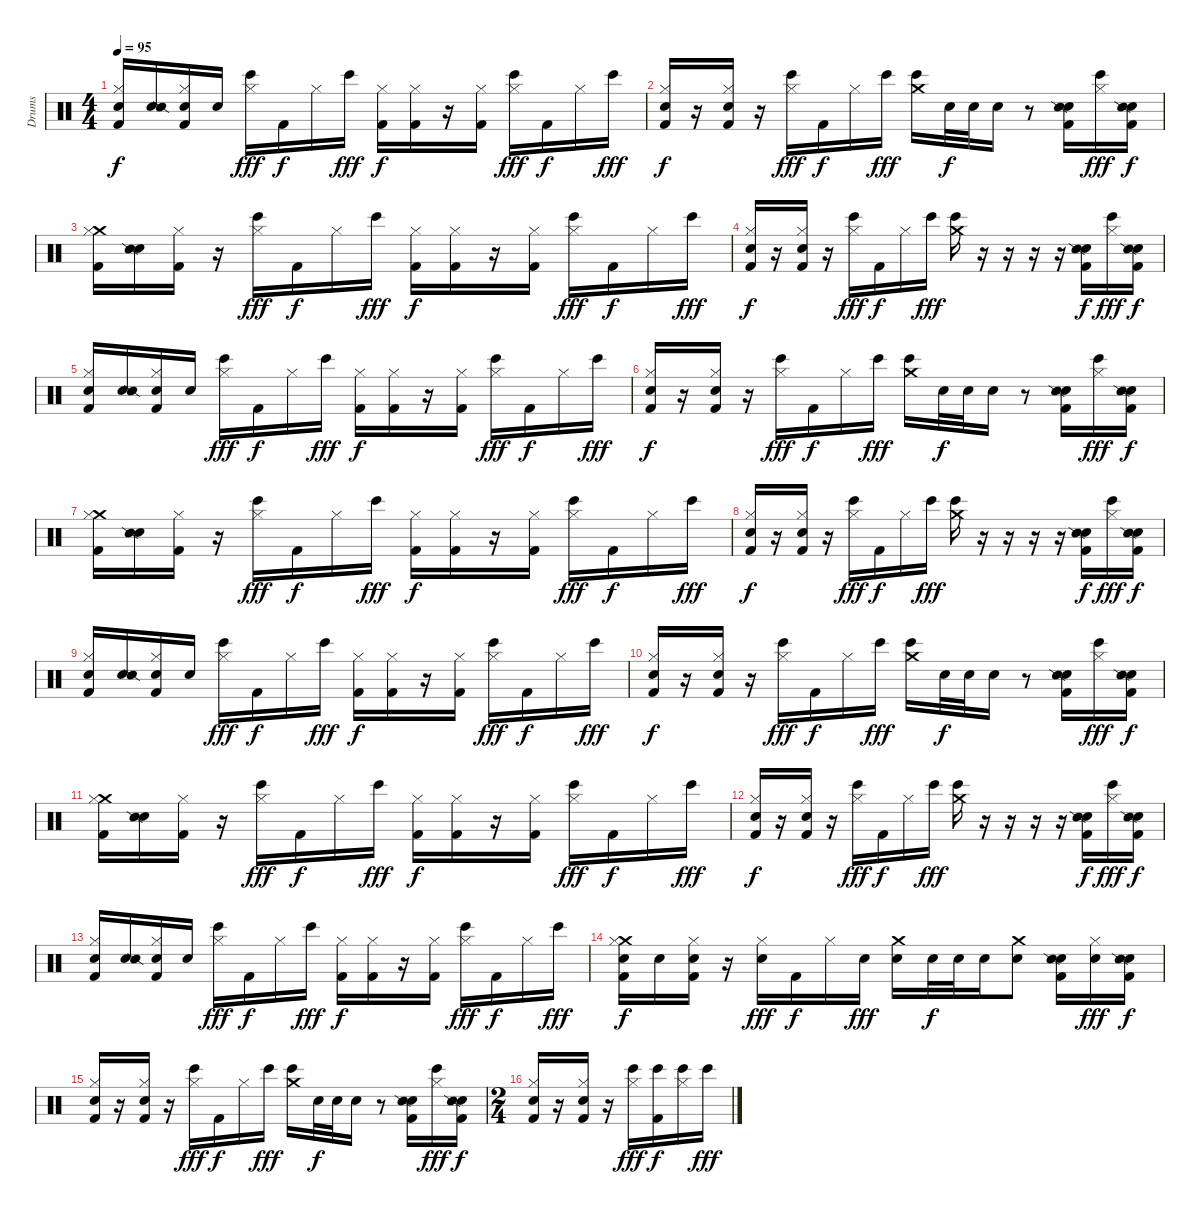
\track ("Drums" "Drums") {instrument percussion}
\staff {score}
\articulation defaults
\ts (4 4)
\tempo 95
\clef neutral
\ks c
("Metronome (bell)" "Hi-Hat (closed)" "Kick (hit) 2").16{dy f} ("Metronome (bell)" "Snare (side stick) 2").16 ("Metronome (bell)" "Hi-Hat (closed)" "Kick (hit) 2").16 "Metronome (bell)".16 ("Hi-Hat (closed)" "Bongo High (hit)").16{dy fff} "Kick (hit) 2".16{dy f} "Hi-Hat (closed)".16 "Bongo High (hit)".16{dy fff} ("Hi-Hat (closed)" "Kick (hit) 2").16{dy f} ("Hi-Hat (closed)" "Kick (hit) 2").16 r.16 ("Hi-Hat (closed)" "Kick (hit) 2").16 ("Hi-Hat (closed)" "Bongo High (hit)").16{dy fff} "Kick (hit) 2".16{dy f} "Hi-Hat (closed)".16 "Bongo High (hit)".16{dy fff} |
("Metronome (bell)" "Hi-Hat (closed)" "Kick (hit) 2").16{dy f} r.16 ("Metronome (bell)" "Hi-Hat (closed)" "Kick (hit) 2").16 r.16 ("Hi-Hat (closed)" "Bongo High (hit)").16{dy fff} "Kick (hit) 2".16{dy f} "Hi-Hat (closed)".16 "Bongo High (hit)".16{dy fff} ("Crash medium (hit)" "Bongo High (hit)").16 "Metronome (bell)".32{dy f} "Metronome (bell)".32 "Metronome (bell)".16 r.8 ("Metronome (bell)" "Snare (side stick) 2" "Kick (hit) 2").16 ("Hi-Hat (closed)" "Bongo High (hit)").16{dy fff} ("Metronome (bell)" "Snare (side stick) 2" "Kick (hit) 2").16{dy f} |
("Crash medium (hit)" "Hi-Hat (closed)" "Kick (hit) 2").16 ("Metronome (bell)" "Snare (side stick) 2").16 ("Hi-Hat (closed)" "Kick (hit) 2").16 r.16 ("Hi-Hat (closed)" "Bongo High (hit)").16{dy fff} "Kick (hit) 2".16{dy f} "Hi-Hat (closed)".16 "Bongo High (hit)".16{dy fff} ("Hi-Hat (closed)" "Kick (hit) 2").16{dy f} ("Hi-Hat (closed)" "Kick (hit) 2").16 r.16 ("Hi-Hat (closed)" "Kick (hit) 2").16 ("Hi-Hat (closed)" "Bongo High (hit)").16{dy fff} "Kick (hit) 2".16{dy f} "Hi-Hat (closed)".16 "Bongo High (hit)".16{dy fff} |
("Metronome (bell)" "Hi-Hat (closed)" "Kick (hit) 2").16{dy f} r.16 ("Metronome (bell)" "Hi-Hat (closed)" "Kick (hit) 2").16 r.16 ("Hi-Hat (closed)" "Bongo High (hit)").16{dy fff} "Kick (hit) 2".16{dy f} "Hi-Hat (closed)".16 "Bongo High (hit)".16{dy fff} ("Crash medium (hit)" "Bongo High (hit)").16 r.16 r.16 r.16 r.16 ("Metronome (bell)" "Snare (side stick) 2" "Kick (hit) 2").16{dy f} ("Hi-Hat (closed)" "Bongo High (hit)").16{dy fff} ("Metronome (bell)" "Snare (side stick) 2" "Kick (hit) 2").16{dy f} |
("Metronome (bell)" "Hi-Hat (closed)" "Kick (hit) 2").16 ("Metronome (bell)" "Snare (side stick) 2").16 ("Metronome (bell)" "Hi-Hat (closed)" "Kick (hit) 2").16 "Metronome (bell)".16 ("Hi-Hat (closed)" "Bongo High (hit)").16{dy fff} "Kick (hit) 2".16{dy f} "Hi-Hat (closed)".16 "Bongo High (hit)".16{dy fff} ("Hi-Hat (closed)" "Kick (hit) 2").16{dy f} ("Hi-Hat (closed)" "Kick (hit) 2").16 r.16 ("Hi-Hat (closed)" "Kick (hit) 2").16 ("Hi-Hat (closed)" "Bongo High (hit)").16{dy fff} "Kick (hit) 2".16{dy f} "Hi-Hat (closed)".16 "Bongo High (hit)".16{dy fff} |
("Metronome (bell)" "Hi-Hat (closed)" "Kick (hit) 2").16{dy f} r.16 ("Metronome (bell)" "Hi-Hat (closed)" "Kick (hit) 2").16 r.16 ("Hi-Hat (closed)" "Bongo High (hit)").16{dy fff} "Kick (hit) 2".16{dy f} "Hi-Hat (closed)".16 "Bongo High (hit)".16{dy fff} ("Crash medium (hit)" "Bongo High (hit)").16 "Metronome (bell)".32{dy f} "Metronome (bell)".32 "Metronome (bell)".16 r.8 ("Metronome (bell)" "Snare (side stick) 2" "Kick (hit) 2").16 ("Hi-Hat (closed)" "Bongo High (hit)").16{dy fff} ("Metronome (bell)" "Snare (side stick) 2" "Kick (hit) 2").16{dy f} |
("Crash medium (hit)" "Hi-Hat (closed)" "Kick (hit) 2").16 ("Metronome (bell)" "Snare (side stick) 2").16 ("Hi-Hat (closed)" "Kick (hit) 2").16 r.16 ("Hi-Hat (closed)" "Bongo High (hit)").16{dy fff} "Kick (hit) 2".16{dy f} "Hi-Hat (closed)".16 "Bongo High (hit)".16{dy fff} ("Hi-Hat (closed)" "Kick (hit) 2").16{dy f} ("Hi-Hat (closed)" "Kick (hit) 2").16 r.16 ("Hi-Hat (closed)" "Kick (hit) 2").16 ("Hi-Hat (closed)" "Bongo High (hit)").16{dy fff} "Kick (hit) 2".16{dy f} "Hi-Hat (closed)".16 "Bongo High (hit)".16{dy fff} |
("Metronome (bell)" "Hi-Hat (closed)" "Kick (hit) 2").16{dy f} r.16 ("Metronome (bell)" "Hi-Hat (closed)" "Kick (hit) 2").16 r.16 ("Hi-Hat (closed)" "Bongo High (hit)").16{dy fff} "Kick (hit) 2".16{dy f} "Hi-Hat (closed)".16 "Bongo High (hit)".16{dy fff} ("Crash medium (hit)" "Bongo High (hit)").16 r.16 r.16 r.16 r.16 ("Metronome (bell)" "Snare (side stick) 2" "Kick (hit) 2").16{dy f} ("Hi-Hat (closed)" "Bongo High (hit)").16{dy fff} ("Metronome (bell)" "Snare (side stick) 2" "Kick (hit) 2").16{dy f} |
("Metronome (bell)" "Hi-Hat (closed)" "Kick (hit) 2").16 ("Metronome (bell)" "Snare (side stick) 2").16 ("Metronome (bell)" "Hi-Hat (closed)" "Kick (hit) 2").16 "Metronome (bell)".16 ("Hi-Hat (closed)" "Bongo High (hit)").16{dy fff} "Kick (hit) 2".16{dy f} "Hi-Hat (closed)".16 "Bongo High (hit)".16{dy fff} ("Hi-Hat (closed)" "Kick (hit) 2").16{dy f} ("Hi-Hat (closed)" "Kick (hit) 2").16 r.16 ("Hi-Hat (closed)" "Kick (hit) 2").16 ("Hi-Hat (closed)" "Bongo High (hit)").16{dy fff} "Kick (hit) 2".16{dy f} "Hi-Hat (closed)".16 "Bongo High (hit)".16{dy fff} |
("Metronome (bell)" "Hi-Hat (closed)" "Kick (hit) 2").16{dy f} r.16 ("Metronome (bell)" "Hi-Hat (closed)" "Kick (hit) 2").16 r.16 ("Hi-Hat (closed)" "Bongo High (hit)").16{dy fff} "Kick (hit) 2".16{dy f} "Hi-Hat (closed)".16 "Bongo High (hit)".16{dy fff} ("Crash medium (hit)" "Bongo High (hit)").16 "Metronome (bell)".32{dy f} "Metronome (bell)".32 "Metronome (bell)".16 r.8 ("Metronome (bell)" "Snare (side stick) 2" "Kick (hit) 2").16 ("Hi-Hat (closed)" "Bongo High (hit)").16{dy fff} ("Metronome (bell)" "Snare (side stick) 2" "Kick (hit) 2").16{dy f} |
("Crash medium (hit)" "Hi-Hat (closed)" "Kick (hit) 2").16 ("Metronome (bell)" "Snare (side stick) 2").16 ("Hi-Hat (closed)" "Kick (hit) 2").16 r.16 ("Hi-Hat (closed)" "Bongo High (hit)").16{dy fff} "Kick (hit) 2".16{dy f} "Hi-Hat (closed)".16 "Bongo High (hit)".16{dy fff} ("Hi-Hat (closed)" "Kick (hit) 2").16{dy f} ("Hi-Hat (closed)" "Kick (hit) 2").16 r.16 ("Hi-Hat (closed)" "Kick (hit) 2").16 ("Hi-Hat (closed)" "Bongo High (hit)").16{dy fff} "Kick (hit) 2".16{dy f} "Hi-Hat (closed)".16 "Bongo High (hit)".16{dy fff} |
("Metronome (bell)" "Hi-Hat (closed)" "Kick (hit) 2").16{dy f} r.16 ("Metronome (bell)" "Hi-Hat (closed)" "Kick (hit) 2").16 r.16 ("Hi-Hat (closed)" "Bongo High (hit)").16{dy fff} "Kick (hit) 2".16{dy f} "Hi-Hat (closed)".16 "Bongo High (hit)".16{dy fff} ("Crash medium (hit)" "Bongo High (hit)").16 r.16 r.16 r.16 r.16 ("Metronome (bell)" "Snare (side stick) 2" "Kick (hit) 2").16{dy f} ("Hi-Hat (closed)" "Bongo High (hit)").16{dy fff} ("Metronome (bell)" "Snare (side stick) 2" "Kick (hit) 2").16{dy f} |
("Metronome (bell)" "Hi-Hat (closed)" "Kick (hit) 2").16 ("Metronome (bell)" "Snare (side stick) 2").16 ("Metronome (bell)" "Hi-Hat (closed)" "Kick (hit) 2").16 "Metronome (bell)".16 ("Hi-Hat (closed)" "Bongo High (hit)").16{dy fff} "Kick (hit) 2".16{dy f} "Hi-Hat (closed)".16 "Bongo High (hit)".16{dy fff} ("Hi-Hat (closed)" "Kick (hit) 2").16{dy f} ("Hi-Hat (closed)" "Kick (hit) 2").16 r.16 ("Hi-Hat (closed)" "Kick (hit) 2").16 ("Hi-Hat (closed)" "Bongo High (hit)").16{dy fff} "Kick (hit) 2".16{dy f} "Hi-Hat (closed)".16 "Bongo High (hit)".16{dy fff} |
("Metronome (bell)" "Crash medium (hit)" "Hi-Hat (closed)" "Kick (hit) 2").16{dy f} "Electric Snare (hit)".16 ("Metronome (bell)" "Hi-Hat (closed)" "Kick (hit) 2").16 r.16 ("Hi-Hat (closed)" "Electric Snare (hit)").16{dy fff} "Kick (hit) 2".16{dy f} "Hi-Hat (closed)".16 "Electric Snare (hit)".16{dy fff} ("Crash medium (hit)" "Electric Snare (hit)").16 "Electric Snare (hit)".32{dy f} "Electric Snare (hit)".32 "Electric Snare (hit)".16 ("Crash medium (hit)" "Electric Snare (hit)").8 ("Metronome (bell)" "Snare (side stick) 2" "Kick (hit) 2").16 ("Hi-Hat (closed)" "Electric Snare (hit)").16{dy fff} ("Metronome (bell)" "Snare (side stick) 2" "Kick (hit) 2").16{dy f} |
("Metronome (bell)" "Hi-Hat (closed)" "Kick (hit) 2").16 r.16 ("Metronome (bell)" "Hi-Hat (closed)" "Kick (hit) 2").16 r.16 ("Hi-Hat (closed)" "Bongo High (hit)").16{dy fff} "Kick (hit) 2".16{dy f} "Hi-Hat (closed)".16 "Bongo High (hit)".16{dy fff} ("Crash medium (hit)" "Bongo High (hit)").16 "Metronome (bell)".32{dy f} "Metronome (bell)".32 "Metronome (bell)".16 r.8 ("Metronome (bell)" "Snare (side stick) 2" "Kick (hit) 2").16 ("Hi-Hat (closed)" "Bongo High (hit)").16{dy fff} ("Metronome (bell)" "Snare (side stick) 2" "Kick (hit) 2").16{dy f} |
\ts (2 4)
("Metronome (bell)" "Hi-Hat (closed)" "Kick (hit) 2").16 r.16 ("Metronome (bell)" "Hi-Hat (closed)" "Kick (hit) 2").16 r.16 ("Hi-Hat (closed)" "Bongo High (hit)").16{dy fff} ("Bongo High (hit)" "Kick (hit) 2").16{dy f} ("Hi-Hat (closed)" "Bongo High (hit)").16 "Bongo High (hit)".16{dy fff}
